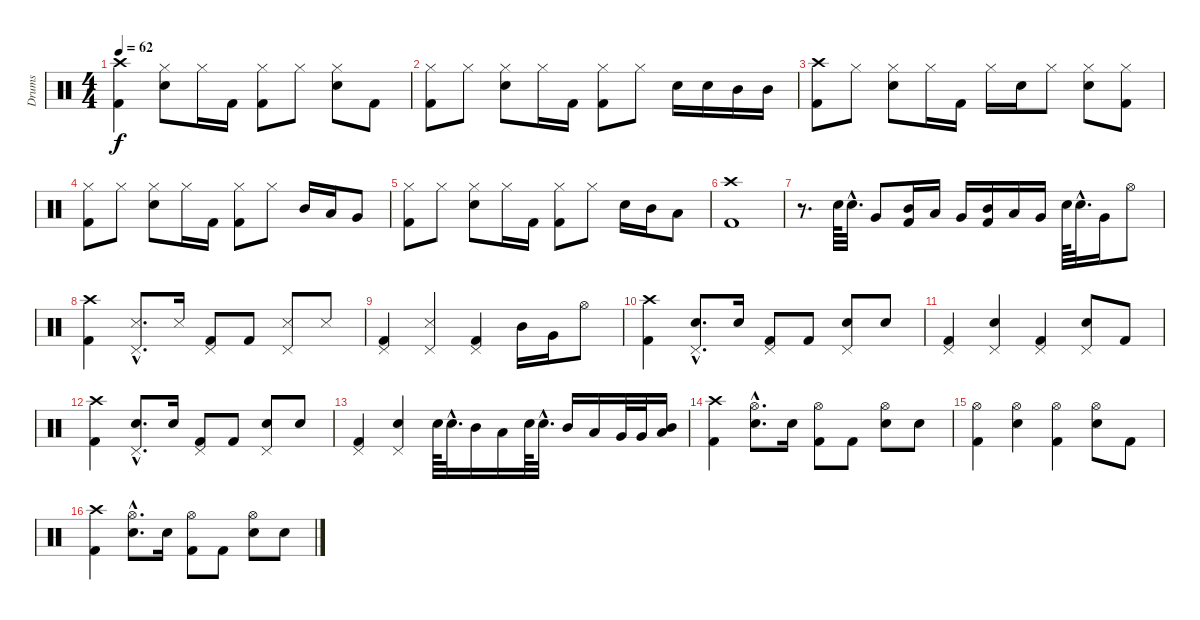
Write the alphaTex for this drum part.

\track ("Drums" "Drums") {instrument percussion}
\staff {score}
\articulation defaults
\ts (4 4)
\tempo 62
\clef neutral
\ks c
("Crash high (hit)" "Kick (hit) 2").4{dy f} ("Hi-Hat (closed)" "Snare (hit) 2").8 "Hi-Hat (closed)".16 "Kick (hit) 2".16 ("Hi-Hat (closed)" "Kick (hit) 2").8 "Hi-Hat (closed)".8 ("Hi-Hat (closed)" "Snare (hit) 2").8 "Kick (hit) 2".8 |
("Hi-Hat (closed)" "Kick (hit) 2").8 "Hi-Hat (closed)".8 ("Hi-Hat (closed)" "Snare (hit) 2").8 "Hi-Hat (closed)".16 "Kick (hit) 2".16 ("Hi-Hat (closed)" "Kick (hit) 2").8 "Hi-Hat (closed)".8 "Snare (hit) 2".16 "Snare (hit) 2".16 "Mid Tom (hit)".16 "Mid Tom (hit)".16 |
("Crash high (hit)" "Kick (hit) 2").8 "Hi-Hat (closed)".8 ("Hi-Hat (closed)" "Snare (hit) 2").8 "Hi-Hat (closed)".16 "Kick (hit) 2".16 "Hi-Hat (closed)".16 "Snare (hit) 2".16 "Hi-Hat (closed)".8 ("Hi-Hat (closed)" "Snare (hit) 2").8 ("Hi-Hat (closed)" "Kick (hit) 2").8 |
("Hi-Hat (closed)" "Kick (hit) 2").8 "Hi-Hat (closed)".8 ("Hi-Hat (closed)" "Snare (hit) 2").8 "Hi-Hat (closed)".16 "Kick (hit) 2".16 ("Hi-Hat (closed)" "Kick (hit) 2").8 "Hi-Hat (closed)".8 "Mid Tom (hit)".16 "Low Tom (hit)".16 "Very Low Tom (hit)".8 |
("Hi-Hat (closed)" "Kick (hit) 2").8 "Hi-Hat (closed)".8 ("Hi-Hat (closed)" "Snare (hit) 2").8 "Hi-Hat (closed)".16 "Kick (hit) 2".16 ("Hi-Hat (closed)" "Kick (hit) 2").8 "Hi-Hat (closed)".8 "Snare (hit) 2".16 "Mid Tom (hit)".16 "Low Tom (hit)".8 |
("Crash high (hit)" "Kick (hit) 2").1 |
r.8{d} "Snare (hit) 2".64 "Snare (hit) 2"{hac}.32{d} "Very Low Tom (hit)".8 ("Mid Tom (hit)" "Kick (hit) 2").16 "Low Tom (hit)".16 "Very Low Tom (hit)".16 ("Mid Tom (hit)" "Kick (hit) 2").16 "Low Tom (hit)".16 "Very Low Tom (hit)".16 "Snare (hit) 2".64 "Snare (hit) 2"{hac}.32{d} "Very Low Tom (hit)".16 "Hi-Hat (open)".8 |
("Crash high (hit)" "Kick (hit) 2").4 ("Pedal Hi-Hat (hit)"{hac} "Snare (side stick) 3"{hac}).8{d} "Snare (side stick) 3".16 ("Pedal Hi-Hat (hit)" "Kick (hit) 2").8 "Kick (hit) 2".8 ("Pedal Hi-Hat (hit)" "Snare (side stick) 3").8 "Snare (side stick) 3".8 |
("Pedal Hi-Hat (hit)" "Kick (hit) 2").4 ("Pedal Hi-Hat (hit)" "Snare (side stick) 3").4 ("Pedal Hi-Hat (hit)" "Kick (hit) 2").4 "Mid Tom (hit)".16 "Very Low Tom (hit)".16 "Hi-Hat (open)".8 |
("Crash high (hit)" "Kick (hit) 2").4 ("Pedal Hi-Hat (hit)"{hac} "Snare (hit) 2"{hac}).8{d} "Snare (hit) 2".16 ("Pedal Hi-Hat (hit)" "Kick (hit) 2").8 "Kick (hit) 2".8 ("Pedal Hi-Hat (hit)" "Snare (hit) 2").8 "Snare (hit) 2".8 |
("Pedal Hi-Hat (hit)" "Kick (hit) 2").4 ("Pedal Hi-Hat (hit)" "Snare (hit) 2").4 ("Pedal Hi-Hat (hit)" "Kick (hit) 2").4 ("Pedal Hi-Hat (hit)" "Snare (hit) 2").8 "Kick (hit) 2".8 |
("Crash high (hit)" "Kick (hit) 2").4 ("Pedal Hi-Hat (hit)"{hac} "Snare (hit) 2"{hac}).8{d} "Snare (hit) 2".16 ("Pedal Hi-Hat (hit)" "Kick (hit) 2").8 "Kick (hit) 2".8 ("Pedal Hi-Hat (hit)" "Snare (hit) 2").8 "Snare (hit) 2".8 |
("Pedal Hi-Hat (hit)" "Kick (hit) 2").4 ("Pedal Hi-Hat (hit)" "Snare (hit) 2").4 "Snare (hit) 2".64 "Snare (hit) 2"{hac}.32{d} "Mid Tom (hit)".16 "Low Tom (hit)".16 "Snare (hit) 2".64 "Snare (hit) 2"{hac}.32{d} "Mid Tom (hit)".16 "Low Tom (hit)".16 "Very Low Tom (hit)".32 "Very Low Tom (hit)".32 ("Low Tom (hit)" "Mid Tom (hit)").16 |
("Crash high (hit)" "Kick (hit) 2").4 ("Hi-Hat (open)"{hac} "Snare (hit) 2"{hac}).8{d} "Snare (hit) 2".16 ("Hi-Hat (open)" "Kick (hit) 2").8 "Kick (hit) 2".8 ("Hi-Hat (open)" "Snare (hit) 2").8 "Snare (hit) 2".8 |
("Hi-Hat (open)" "Kick (hit) 2").4 ("Hi-Hat (open)" "Snare (hit) 2").4 ("Hi-Hat (open)" "Kick (hit) 2").4 ("Hi-Hat (open)" "Snare (hit) 2").8 "Kick (hit) 2".8 |
("Crash high (hit)" "Kick (hit) 2").4 ("Hi-Hat (open)"{hac} "Snare (hit) 2"{hac}).8{d} "Snare (hit) 2".16 ("Hi-Hat (open)" "Kick (hit) 2").8 "Kick (hit) 2".8 ("Hi-Hat (open)" "Snare (hit) 2").8 "Snare (hit) 2".8
